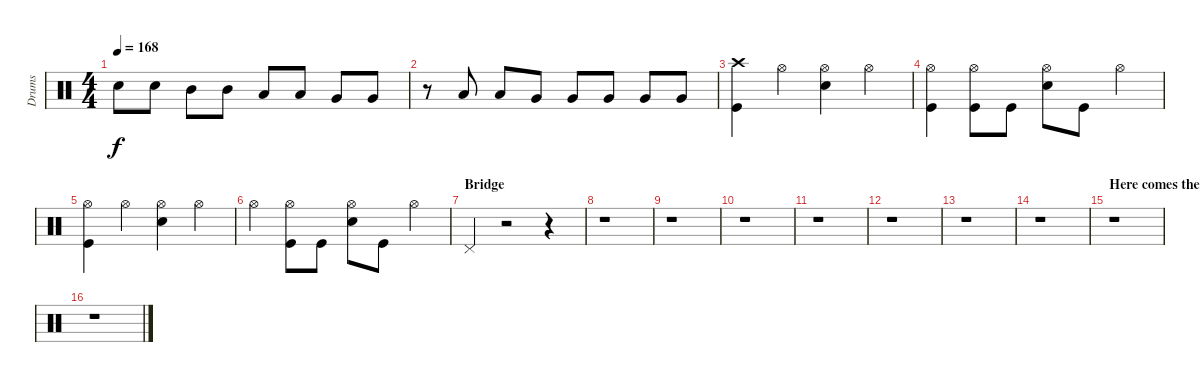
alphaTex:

\track ("Drums" "Drums") {instrument percussion}
\staff {score}
\articulation defaults
\ts (4 4)
\tempo 168
\clef neutral
\ks c "Electric Snare (hit)".8{dy f} "Electric Snare (hit)".8 "Mid Tom (hit)".8 "Mid Tom (hit)".8 "Low Tom (hit)".8 "Low Tom (hit)".8 "Very Low Tom (hit)".8 "Very Low Tom (hit)".8
|
r.8 "Low Tom (hit)".8 "Low Tom (hit)".8 "Very Low Tom (hit)".8 "Very Low Tom (hit)".8 "Very Low Tom (hit)".8 "Very Low Tom (hit)".8 "Very Low Tom (hit)".8 |
("Crash high (hit)" "Kick (hit)").4 "Hi-Hat (open)".4 ("Hi-Hat (open)" "Electric Snare (hit)").4 "Hi-Hat (open)".4 |
("Hi-Hat (open)" "Kick (hit)").4 ("Hi-Hat (open)" "Kick (hit)").8 "Kick (hit)".8 ("Hi-Hat (open)" "Electric Snare (hit)").8 "Kick (hit)".8 "Hi-Hat (open)".4 |
("Hi-Hat (open)" "Kick (hit)").4 "Hi-Hat (open)".4 ("Hi-Hat (open)" "Electric Snare (hit)").4 "Hi-Hat (open)".4 |
"Hi-Hat (open)".4 ("Hi-Hat (open)" "Kick (hit)").8 "Kick (hit)".8 ("Hi-Hat (open)" "Electric Snare (hit)").8 "Kick (hit)".8 "Hi-Hat (open)".4 |
\section ("" "Bridge")
"Pedal Hi-Hat (hit)".4 r.2 r.4 |
r.1 |
r.1 |
r.1 |
r.1 |
r.1 |
r.1 |
r.1 |
\section ("" "Here comes the revolution...")
r.1 |
r.1
